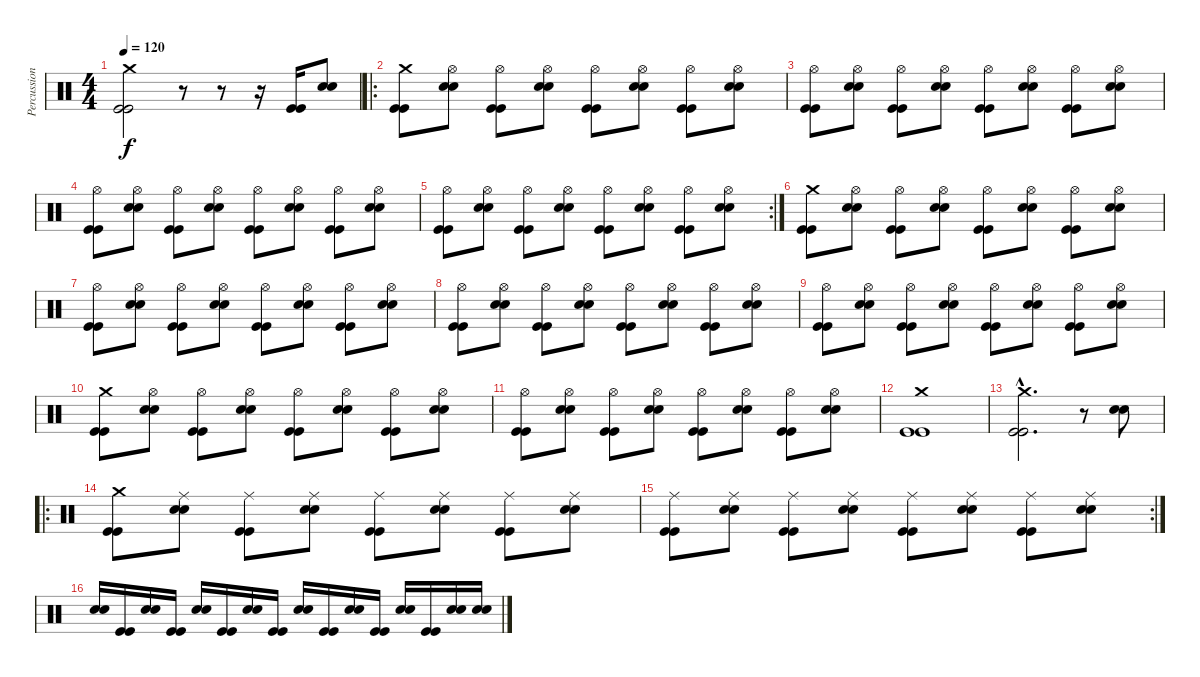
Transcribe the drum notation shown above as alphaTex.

\track ("Percussion" "Percussion") {instrument percussion}
\staff {score}
\articulation defaults
\ts (4 4)
\tempo 120
\clef neutral
\ks c
("Crash medium (hit)" "Kick (hit)" "Kick (hit)").2{dy f} r.8 r.8 r.16 ("Kick (hit)" "Kick (hit)").16 ("Electric Snare (hit)" "Electric Snare (hit)").8 |
\ro
("Crash medium (hit)" "Kick (hit)" "Kick (hit)").8 ("Electric Snare (hit)" "Electric Snare (hit)" "Hi-Hat (open)").8 ("Kick (hit)" "Kick (hit)" "Hi-Hat (open)").8 ("Electric Snare (hit)" "Electric Snare (hit)" "Hi-Hat (open)").8 ("Kick (hit)" "Kick (hit)" "Hi-Hat (open)").8 ("Electric Snare (hit)" "Electric Snare (hit)" "Hi-Hat (open)").8 ("Kick (hit)" "Kick (hit)" "Hi-Hat (open)").8 ("Electric Snare (hit)" "Electric Snare (hit)" "Hi-Hat (open)").8 |
("Kick (hit)" "Kick (hit)" "Hi-Hat (open)").8 ("Electric Snare (hit)" "Electric Snare (hit)" "Hi-Hat (open)").8 ("Kick (hit)" "Kick (hit)" "Hi-Hat (open)").8 ("Electric Snare (hit)" "Electric Snare (hit)" "Hi-Hat (open)").8 ("Kick (hit)" "Kick (hit)" "Hi-Hat (open)").8 ("Electric Snare (hit)" "Electric Snare (hit)" "Hi-Hat (open)").8 ("Kick (hit)" "Kick (hit)" "Hi-Hat (open)").8 ("Electric Snare (hit)" "Electric Snare (hit)" "Hi-Hat (open)").8 |
("Kick (hit)" "Kick (hit)" "Hi-Hat (open)").8 ("Electric Snare (hit)" "Electric Snare (hit)" "Hi-Hat (open)").8 ("Kick (hit)" "Kick (hit)" "Hi-Hat (open)").8 ("Electric Snare (hit)" "Electric Snare (hit)" "Hi-Hat (open)").8 ("Kick (hit)" "Kick (hit)" "Hi-Hat (open)").8 ("Electric Snare (hit)" "Electric Snare (hit)" "Hi-Hat (open)").8 ("Kick (hit)" "Kick (hit)" "Hi-Hat (open)").8 ("Electric Snare (hit)" "Electric Snare (hit)" "Hi-Hat (open)").8 |
\rc 2
("Kick (hit)" "Kick (hit)" "Hi-Hat (open)").8 ("Electric Snare (hit)" "Electric Snare (hit)" "Hi-Hat (open)").8 ("Kick (hit)" "Kick (hit)" "Hi-Hat (open)").8 ("Electric Snare (hit)" "Electric Snare (hit)" "Hi-Hat (open)").8 ("Kick (hit)" "Kick (hit)" "Hi-Hat (open)").8 ("Electric Snare (hit)" "Electric Snare (hit)" "Hi-Hat (open)").8 ("Kick (hit)" "Kick (hit)" "Hi-Hat (open)").8 ("Electric Snare (hit)" "Electric Snare (hit)" "Hi-Hat (open)").8 |
("Crash medium (hit)" "Kick (hit)" "Kick (hit)").8 ("Electric Snare (hit)" "Electric Snare (hit)" "Hi-Hat (open)").8 ("Kick (hit)" "Kick (hit)" "Hi-Hat (open)").8 ("Electric Snare (hit)" "Electric Snare (hit)" "Hi-Hat (open)").8 ("Kick (hit)" "Kick (hit)" "Hi-Hat (open)").8 ("Electric Snare (hit)" "Electric Snare (hit)" "Hi-Hat (open)").8 ("Kick (hit)" "Kick (hit)" "Hi-Hat (open)").8 ("Electric Snare (hit)" "Electric Snare (hit)" "Hi-Hat (open)").8 |
("Kick (hit)" "Kick (hit)" "Hi-Hat (open)").8 ("Electric Snare (hit)" "Electric Snare (hit)" "Hi-Hat (open)").8 ("Kick (hit)" "Kick (hit)" "Hi-Hat (open)").8 ("Electric Snare (hit)" "Electric Snare (hit)" "Hi-Hat (open)").8 ("Kick (hit)" "Kick (hit)" "Hi-Hat (open)").8 ("Electric Snare (hit)" "Electric Snare (hit)" "Hi-Hat (open)").8 ("Kick (hit)" "Kick (hit)" "Hi-Hat (open)").8 ("Electric Snare (hit)" "Electric Snare (hit)" "Hi-Hat (open)").8 |
("Kick (hit)" "Kick (hit)" "Hi-Hat (open)").8 ("Electric Snare (hit)" "Electric Snare (hit)" "Hi-Hat (open)").8 ("Kick (hit)" "Kick (hit)" "Hi-Hat (open)").8 ("Electric Snare (hit)" "Electric Snare (hit)" "Hi-Hat (open)").8 ("Kick (hit)" "Kick (hit)" "Hi-Hat (open)").8 ("Electric Snare (hit)" "Electric Snare (hit)" "Hi-Hat (open)").8 ("Kick (hit)" "Kick (hit)" "Hi-Hat (open)").8 ("Electric Snare (hit)" "Electric Snare (hit)" "Hi-Hat (open)").8 |
("Kick (hit)" "Kick (hit)" "Hi-Hat (open)").8 ("Electric Snare (hit)" "Electric Snare (hit)" "Hi-Hat (open)").8 ("Kick (hit)" "Kick (hit)" "Hi-Hat (open)").8 ("Electric Snare (hit)" "Electric Snare (hit)" "Hi-Hat (open)").8 ("Kick (hit)" "Kick (hit)" "Hi-Hat (open)").8 ("Electric Snare (hit)" "Electric Snare (hit)" "Hi-Hat (open)").8 ("Kick (hit)" "Kick (hit)" "Hi-Hat (open)").8 ("Electric Snare (hit)" "Electric Snare (hit)" "Hi-Hat (open)").8 |
("Crash medium (hit)" "Kick (hit)" "Kick (hit)").8 ("Electric Snare (hit)" "Electric Snare (hit)" "Hi-Hat (open)").8 ("Kick (hit)" "Kick (hit)" "Hi-Hat (open)").8 ("Electric Snare (hit)" "Electric Snare (hit)" "Hi-Hat (open)").8 ("Kick (hit)" "Kick (hit)" "Hi-Hat (open)").8 ("Electric Snare (hit)" "Electric Snare (hit)" "Hi-Hat (open)").8 ("Kick (hit)" "Kick (hit)" "Hi-Hat (open)").8 ("Electric Snare (hit)" "Electric Snare (hit)" "Hi-Hat (open)").8 |
("Kick (hit)" "Kick (hit)" "Hi-Hat (open)").8 ("Electric Snare (hit)" "Electric Snare (hit)" "Hi-Hat (open)").8 ("Kick (hit)" "Kick (hit)" "Hi-Hat (open)").8 ("Electric Snare (hit)" "Electric Snare (hit)" "Hi-Hat (open)").8 ("Kick (hit)" "Kick (hit)" "Hi-Hat (open)").8 ("Electric Snare (hit)" "Electric Snare (hit)" "Hi-Hat (open)").8 ("Kick (hit)" "Kick (hit)" "Hi-Hat (open)").8 ("Electric Snare (hit)" "Electric Snare (hit)" "Hi-Hat (open)").8 |
("Crash medium (hit)" "Kick (hit)" "Kick (hit)").1 |
("Crash medium (hit)"{hac} "Kick (hit)"{hac} "Kick (hit)"{hac}).2{d} r.8 ("Electric Snare (hit)" "Electric Snare (hit)").8 |
\ro
("Crash medium (hit)" "Kick (hit)" "Kick (hit)").8 ("Electric Snare (hit)" "Electric Snare (hit)" "Ride (middle)").8 ("Kick (hit)" "Kick (hit)" "Ride (middle)").8 ("Electric Snare (hit)" "Electric Snare (hit)" "Ride (middle)").8 ("Kick (hit)" "Kick (hit)" "Ride (middle)").8 ("Electric Snare (hit)" "Electric Snare (hit)" "Ride (middle)").8 ("Kick (hit)" "Kick (hit)" "Ride (middle)").8 ("Electric Snare (hit)" "Electric Snare (hit)" "Ride (middle)").8 |
\rc 2
("Kick (hit)" "Kick (hit)" "Ride (middle)").8 ("Electric Snare (hit)" "Electric Snare (hit)" "Ride (middle)").8 ("Kick (hit)" "Kick (hit)" "Ride (middle)").8 ("Electric Snare (hit)" "Electric Snare (hit)" "Ride (middle)").8 ("Kick (hit)" "Kick (hit)" "Ride (middle)").8 ("Electric Snare (hit)" "Electric Snare (hit)" "Ride (middle)").8 ("Kick (hit)" "Kick (hit)" "Ride (middle)").8 ("Electric Snare (hit)" "Electric Snare (hit)" "Ride (middle)").8 |
("Electric Snare (hit)" "Electric Snare (hit)").16 ("Kick (hit)" "Kick (hit)").16 ("Electric Snare (hit)" "Electric Snare (hit)").16 ("Kick (hit)" "Kick (hit)").16 ("Electric Snare (hit)" "Electric Snare (hit)").16 ("Kick (hit)" "Kick (hit)").16 ("Electric Snare (hit)" "Electric Snare (hit)").16 ("Kick (hit)" "Kick (hit)").16 ("Electric Snare (hit)" "Electric Snare (hit)").16 ("Kick (hit)" "Kick (hit)").16 ("Electric Snare (hit)" "Electric Snare (hit)").16 ("Kick (hit)" "Kick (hit)").16 ("Electric Snare (hit)" "Electric Snare (hit)").16 ("Kick (hit)" "Kick (hit)").16 ("Electric Snare (hit)" "Electric Snare (hit)").16 ("Electric Snare (hit)" "Electric Snare (hit)").16
